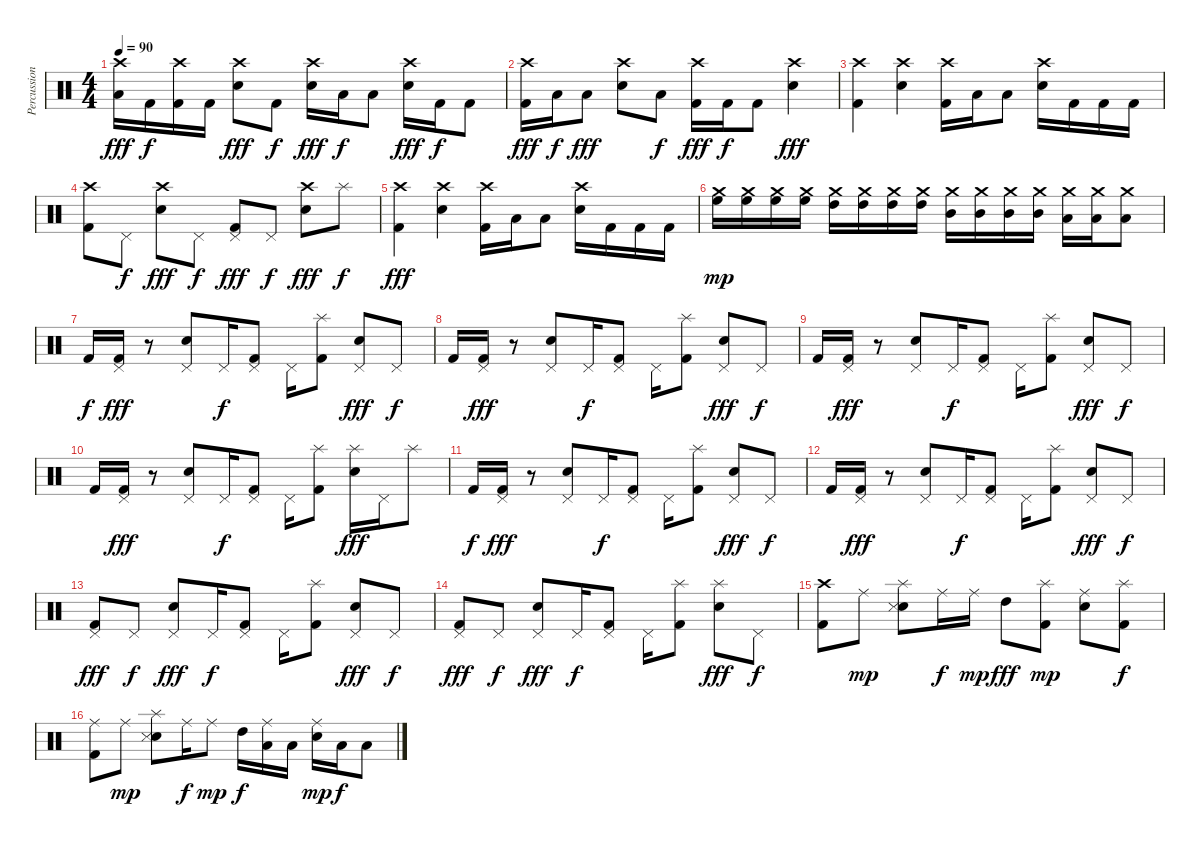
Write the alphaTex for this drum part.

\track ("Percussion" "Percussion") {instrument percussion}
\staff {score}
\articulation defaults
\ts (4 4)
\tempo 90
\clef neutral
\ks c
("Low Tom (hit)" "Crash high (hit)").16{dy fff} "Kick (hit) 2".16{dy f} ("Kick (hit) 2" "Crash high (hit)").16 "Kick (hit) 2".16 ("Electric Snare (hit)" "Crash high (hit)").8{dy fff} "Kick (hit) 2".8{dy f} ("Electric Snare (hit)" "Crash high (hit)").16{dy fff} "Low Tom (hit)".16{dy f} "Low Tom (hit)".8 ("Electric Snare (hit)" "Crash high (hit)").16{dy fff} "Kick (hit) 2".16{dy f} "Kick (hit) 2".8 |
("Kick (hit) 2" "Crash high (hit)").16{dy fff} "Low Tom (hit)".16{dy f} "Low Tom (hit)".8{dy fff} ("Electric Snare (hit)" "Crash high (hit)").8 "Low Tom (hit)".8{dy f} ("Kick (hit) 2" "Crash high (hit)").16{dy fff} "Kick (hit) 2".16{dy f} "Kick (hit) 2".8 ("Electric Snare (hit)" "Crash high (hit)").4{dy fff} |
("Kick (hit) 2" "Crash high (hit)").4 ("Electric Snare (hit)" "Crash high (hit)").4 ("Kick (hit) 2" "Crash high (hit)").16 "Low Tom (hit)".16 "Low Tom (hit)".8 ("Electric Snare (hit)" "Crash high (hit)").16 "Kick (hit) 2".16 "Kick (hit) 2".16 "Kick (hit) 2".16 |
("Kick (hit) 2" "Crash high (hit)").8 "Pedal Hi-Hat (hit)".8{dy f} ("Electric Snare (hit)" "Crash high (hit)").8{dy fff} "Pedal Hi-Hat (hit)".8{dy f} ("Kick (hit) 2" "Pedal Hi-Hat (hit)").8{dy fff} "Pedal Hi-Hat (hit)".8{dy f} ("Electric Snare (hit)" "Crash high (hit)").8{dy fff} "Splash (hit)".8{dy f} |
("Kick (hit) 2" "Crash high (hit)").4{dy fff} ("Electric Snare (hit)" "Crash high (hit)").4 ("Kick (hit) 2" "Crash high (hit)").16 "Low Tom (hit)".16 "Low Tom (hit)".8 ("Electric Snare (hit)" "Crash high (hit)").16 "Kick (hit) 2".16 "Kick (hit) 2".16 "Kick (hit) 2".16 |
("High Floor Tom (hit)" "Crash medium (hit)").16{dy mp} ("High Floor Tom (hit)" "Crash medium (hit)").16 ("High Floor Tom (hit)" "Crash medium (hit)").16 ("High Floor Tom (hit)" "Crash medium (hit)").16 ("High Tom (hit)" "Crash medium (hit)").16 ("High Tom (hit)" "Crash medium (hit)").16 ("High Tom (hit)" "Crash medium (hit)").16 ("High Tom (hit)" "Crash medium (hit)").16 ("Mid Tom (hit)" "Crash medium (hit)").16 ("Mid Tom (hit)" "Crash medium (hit)").16 ("Mid Tom (hit)" "Crash medium (hit)").16 ("Mid Tom (hit)" "Crash medium (hit)").16 ("Low Tom (hit)" "Crash medium (hit)").16 ("Low Tom (hit)" "Crash medium (hit)").16 ("Low Tom (hit)" "Crash medium (hit)").8 |
"Kick (hit) 2".16{dy f} ("Kick (hit) 2" "Pedal Hi-Hat (hit)").16{dy fff} r.8 ("Electric Snare (hit)" "Pedal Hi-Hat (hit)").8 "Pedal Hi-Hat (hit)".16{dy f} ("Kick (hit) 2" "Pedal Hi-Hat (hit)").8 "Pedal Hi-Hat (hit)".16 ("Kick (hit) 2" "Splash (hit)").8 ("Electric Snare (hit)" "Pedal Hi-Hat (hit)").8{dy fff} "Pedal Hi-Hat (hit)".8{dy f} |
"Kick (hit) 2".16 ("Kick (hit) 2" "Pedal Hi-Hat (hit)").16{dy fff} r.8 ("Electric Snare (hit)" "Pedal Hi-Hat (hit)").8 "Pedal Hi-Hat (hit)".16{dy f} ("Kick (hit) 2" "Pedal Hi-Hat (hit)").8 "Pedal Hi-Hat (hit)".16 ("Kick (hit) 2" "Splash (hit)").8 ("Electric Snare (hit)" "Pedal Hi-Hat (hit)").8{dy fff} "Pedal Hi-Hat (hit)".8{dy f} |
"Kick (hit) 2".16 ("Kick (hit) 2" "Pedal Hi-Hat (hit)").16{dy fff} r.8 ("Electric Snare (hit)" "Pedal Hi-Hat (hit)").8 "Pedal Hi-Hat (hit)".16{dy f} ("Kick (hit) 2" "Pedal Hi-Hat (hit)").8 "Pedal Hi-Hat (hit)".16 ("Kick (hit) 2" "Splash (hit)").8 ("Electric Snare (hit)" "Pedal Hi-Hat (hit)").8{dy fff} "Pedal Hi-Hat (hit)".8{dy f} |
"Kick (hit) 2".16 ("Kick (hit) 2" "Pedal Hi-Hat (hit)").16{dy fff} r.8 ("Electric Snare (hit)" "Pedal Hi-Hat (hit)").8 "Pedal Hi-Hat (hit)".16{dy f} ("Kick (hit) 2" "Pedal Hi-Hat (hit)").8 "Pedal Hi-Hat (hit)".16 ("Kick (hit) 2" "Splash (hit)").8 ("Electric Snare (hit)" "Splash (hit)").16{dy fff} "Pedal Hi-Hat (hit)".16 "Splash (hit)".8 |
"Kick (hit) 2".16{dy f} ("Kick (hit) 2" "Pedal Hi-Hat (hit)").16{dy fff} r.8 ("Electric Snare (hit)" "Pedal Hi-Hat (hit)").8 "Pedal Hi-Hat (hit)".16{dy f} ("Kick (hit) 2" "Pedal Hi-Hat (hit)").8 "Pedal Hi-Hat (hit)".16 ("Kick (hit) 2" "Splash (hit)").8 ("Electric Snare (hit)" "Pedal Hi-Hat (hit)").8{dy fff} "Pedal Hi-Hat (hit)".8{dy f} |
"Kick (hit) 2".16 ("Kick (hit) 2" "Pedal Hi-Hat (hit)").16{dy fff} r.8 ("Electric Snare (hit)" "Pedal Hi-Hat (hit)").8 "Pedal Hi-Hat (hit)".16{dy f} ("Kick (hit) 2" "Pedal Hi-Hat (hit)").8 "Pedal Hi-Hat (hit)".16 ("Kick (hit) 2" "Splash (hit)").8 ("Electric Snare (hit)" "Pedal Hi-Hat (hit)").8{dy fff} "Pedal Hi-Hat (hit)".8{dy f} |
("Kick (hit) 2" "Pedal Hi-Hat (hit)").8{dy fff} "Pedal Hi-Hat (hit)".8{dy f} ("Electric Snare (hit)" "Pedal Hi-Hat (hit)").8{dy fff} "Pedal Hi-Hat (hit)".16{dy f} ("Kick (hit) 2" "Pedal Hi-Hat (hit)").8 "Pedal Hi-Hat (hit)".16 ("Kick (hit) 2" "Splash (hit)").8 ("Electric Snare (hit)" "Pedal Hi-Hat (hit)").8{dy fff} "Pedal Hi-Hat (hit)".8{dy f} |
("Kick (hit) 2" "Pedal Hi-Hat (hit)").8{dy fff} "Pedal Hi-Hat (hit)".8{dy f} ("Electric Snare (hit)" "Pedal Hi-Hat (hit)").8{dy fff} "Pedal Hi-Hat (hit)".16{dy f} ("Kick (hit) 2" "Pedal Hi-Hat (hit)").8 "Pedal Hi-Hat (hit)".16 ("Kick (hit) 2" "Splash (hit)").8 ("Electric Snare (hit)" "Splash (hit)").8{dy fff} "Pedal Hi-Hat (hit)".8{dy f} |
("Kick (hit) 2" "Crash high (hit)").8 "Ride (middle)".8{dy mp} ("Electric Snare (hit)" "Snare (side stick) 3" "Splash (hit)").8 "Ride (middle)".16{dy f} "Ride (middle)".16{dy mp} "High Tom (hit)".8{dy fff} ("Kick (hit) 2" "Splash (hit)").8{dy mp} ("Electric Snare (hit)" "Ride (middle)").8 ("Kick (hit) 2" "Splash (hit)").8{dy f} |
("Kick (hit) 2" "Ride (middle)").8 "Ride (middle)".8{dy mp} ("Electric Snare (hit)" "Snare (side stick) 3" "Splash (hit)").8 "Ride (middle)".16{dy f} "Ride (middle)".8{dy mp} "High Tom (hit)".16{dy f} ("Low Tom (hit)" "Ride (middle)").16 "Low Tom (hit)".16 ("Electric Snare (hit)" "Ride (middle)").16{dy mp} "Low Tom (hit)".16{dy f} "Low Tom (hit)".8
